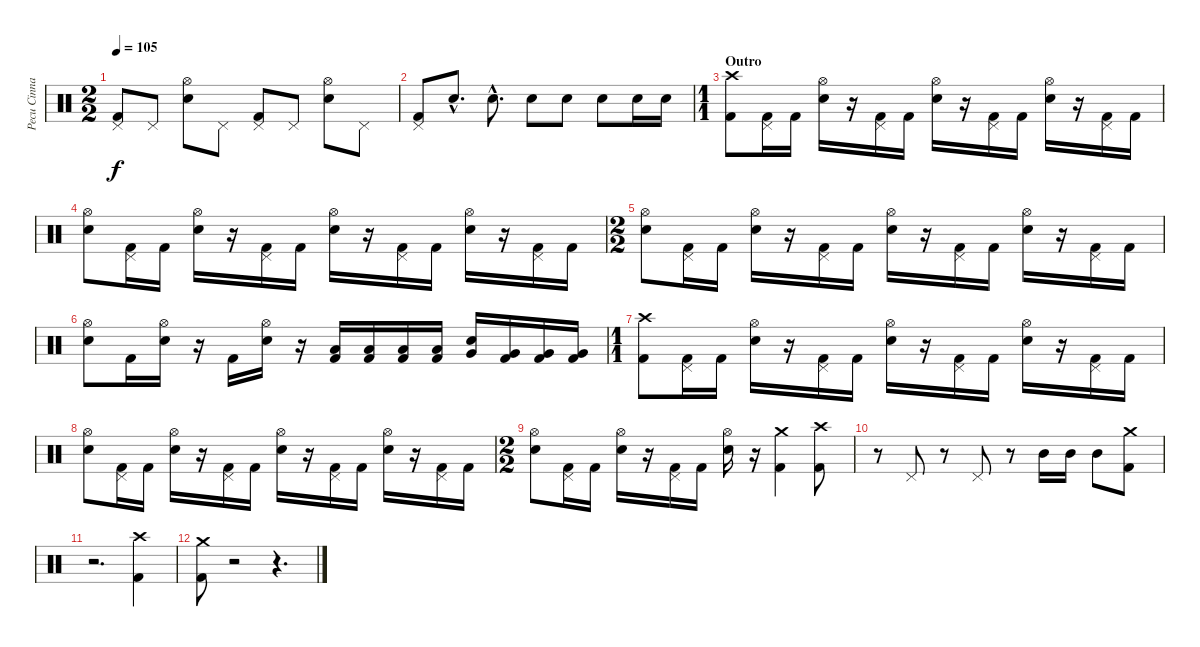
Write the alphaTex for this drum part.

\track ("Pecu Cinnari" "Pecu Cinna") {instrument percussion}
\staff {score}
\articulation defaults
\ts (2 2)
\tempo 105
\clef neutral
\ks c
("Pedal Hi-Hat (hit)" "Kick (hit) 2").8{dy f} "Pedal Hi-Hat (hit)".8 ("Hi-Hat (open)" "Electric Snare (hit)").8 "Pedal Hi-Hat (hit)".8 ("Pedal Hi-Hat (hit)" "Kick (hit) 2").8 "Pedal Hi-Hat (hit)".8 ("Hi-Hat (open)" "Electric Snare (hit)").8 "Pedal Hi-Hat (hit)".8 |
("Pedal Hi-Hat (hit)" "Kick (hit) 2").8 "Electric Snare (hit)"{hac}.8{d} "Electric Snare (hit)"{hac}.8{d} "Electric Snare (hit)".8 "Electric Snare (hit)".8 "Electric Snare (hit)".8 "Electric Snare (hit)".16 "Electric Snare (hit)".16 |
\ts (1 1)
\section ("" "Outro")
("Crash high (hit)" "Kick (hit) 2").8 ("Pedal Hi-Hat (hit)" "Kick (hit) 2").16 "Kick (hit) 2".16 ("Hi-Hat (open)" "Electric Snare (hit)").16 r.16 ("Pedal Hi-Hat (hit)" "Kick (hit) 2").16 "Kick (hit) 2".16 ("Hi-Hat (open)" "Electric Snare (hit)").16 r.16 ("Pedal Hi-Hat (hit)" "Kick (hit) 2").16 "Kick (hit) 2".16 ("Hi-Hat (open)" "Electric Snare (hit)").16 r.16 ("Pedal Hi-Hat (hit)" "Kick (hit) 2").16 "Kick (hit) 2".16 |
("Hi-Hat (open)" "Electric Snare (hit)").8 ("Pedal Hi-Hat (hit)" "Kick (hit) 2").16 "Kick (hit) 2".16 ("Hi-Hat (open)" "Electric Snare (hit)").16 r.16 ("Pedal Hi-Hat (hit)" "Kick (hit) 2").16 "Kick (hit) 2".16 ("Hi-Hat (open)" "Electric Snare (hit)").16 r.16 ("Pedal Hi-Hat (hit)" "Kick (hit) 2").16 "Kick (hit) 2".16 ("Hi-Hat (open)" "Electric Snare (hit)").16 r.16 ("Pedal Hi-Hat (hit)" "Kick (hit) 2").16 "Kick (hit) 2".16 |
\ts (2 2)
("Hi-Hat (open)" "Electric Snare (hit)").8 ("Pedal Hi-Hat (hit)" "Kick (hit) 2").16 "Kick (hit) 2".16 ("Hi-Hat (open)" "Electric Snare (hit)").16 r.16 ("Pedal Hi-Hat (hit)" "Kick (hit) 2").16 "Kick (hit) 2".16 ("Hi-Hat (open)" "Electric Snare (hit)").16 r.16 ("Pedal Hi-Hat (hit)" "Kick (hit) 2").16 "Kick (hit) 2".16 ("Hi-Hat (open)" "Electric Snare (hit)").16 r.16 ("Pedal Hi-Hat (hit)" "Kick (hit) 2").16 "Kick (hit) 2".16 |
("Hi-Hat (open)" "Electric Snare (hit)").8 "Kick (hit) 2".16 ("Hi-Hat (open)" "Electric Snare (hit)").16 r.16 "Kick (hit) 2".16 ("Hi-Hat (open)" "Electric Snare (hit)").16 r.16 ("Low Tom (hit)" "Kick (hit) 2").16 ("Low Tom (hit)" "Kick (hit) 2").16 ("Low Tom (hit)" "Kick (hit) 2").16 ("Low Tom (hit)" "Kick (hit) 2").16 ("Very Low Tom (hit)" "Electric Snare (hit)").16 ("Very Low Tom (hit)" "Kick (hit) 2").16 ("Very Low Tom (hit)" "Kick (hit) 2").16 ("Very Low Tom (hit)" "Kick (hit) 2").16 |
\ts (1 1)
("Crash high (hit)" "Kick (hit) 2").8 ("Pedal Hi-Hat (hit)" "Kick (hit) 2").16 "Kick (hit) 2".16 ("Hi-Hat (open)" "Electric Snare (hit)").16 r.16 ("Pedal Hi-Hat (hit)" "Kick (hit) 2").16 "Kick (hit) 2".16 ("Hi-Hat (open)" "Electric Snare (hit)").16 r.16 ("Pedal Hi-Hat (hit)" "Kick (hit) 2").16 "Kick (hit) 2".16 ("Hi-Hat (open)" "Electric Snare (hit)").16 r.16 ("Pedal Hi-Hat (hit)" "Kick (hit) 2").16 "Kick (hit) 2".16 |
("Hi-Hat (open)" "Electric Snare (hit)").8 ("Pedal Hi-Hat (hit)" "Kick (hit) 2").16 "Kick (hit) 2".16 ("Hi-Hat (open)" "Electric Snare (hit)").16 r.16 ("Pedal Hi-Hat (hit)" "Kick (hit) 2").16 "Kick (hit) 2".16 ("Hi-Hat (open)" "Electric Snare (hit)").16 r.16 ("Pedal Hi-Hat (hit)" "Kick (hit) 2").16 "Kick (hit) 2".16 ("Hi-Hat (open)" "Electric Snare (hit)").16 r.16 ("Pedal Hi-Hat (hit)" "Kick (hit) 2").16 "Kick (hit) 2".16 |
\ts (2 2)
("Hi-Hat (open)" "Electric Snare (hit)").8 ("Pedal Hi-Hat (hit)" "Kick (hit) 2").16 "Kick (hit) 2".16 ("Hi-Hat (open)" "Electric Snare (hit)").16 r.16 ("Pedal Hi-Hat (hit)" "Kick (hit) 2").16 "Kick (hit) 2".16 ("Hi-Hat (open)" "Electric Snare (hit)").16 r.16 ("Crash medium (hit)" "Kick (hit) 2").4 ("Crash high (hit)" "Kick (hit) 2").8 |
r.8 "Pedal Hi-Hat (hit)".8 r.8 "Pedal Hi-Hat (hit)".8 r.8 "Mid Tom (hit)".16 "Mid Tom (hit)".16 "Mid Tom (hit)".8 ("Crash medium (hit)" "Kick (hit) 2").8 |
r.2{d} ("Crash high (hit)" "Kick (hit) 2").4 |
("Crash medium (hit)" "Kick (hit) 2").8 r.2 r.4{d}
